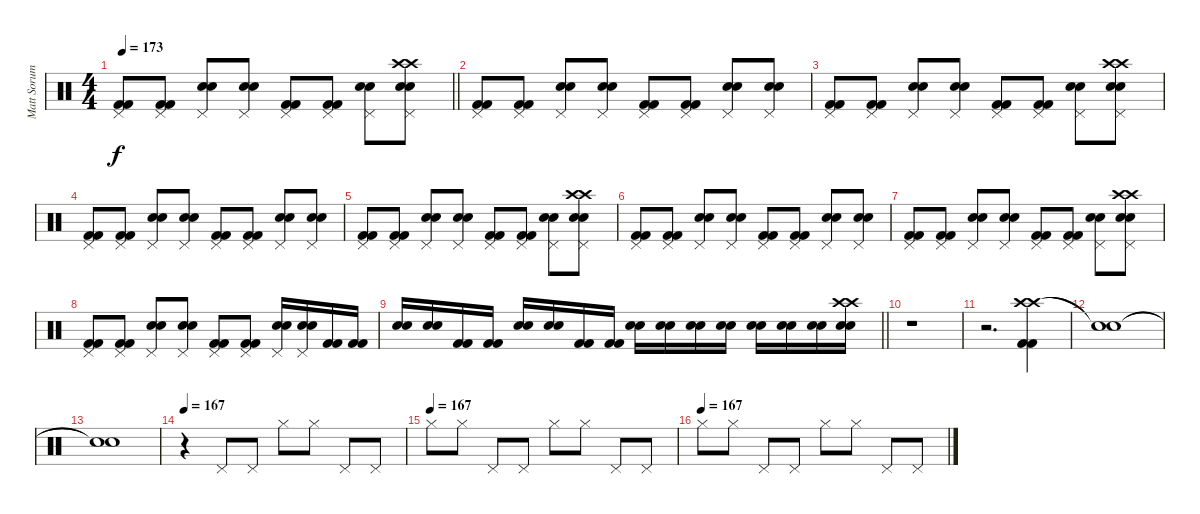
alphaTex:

\track ("Matt Sorum" "Matt Sorum") {instrument percussion}
\staff {score}
\articulation defaults
\ts (4 4)
\tempo 173
\clef neutral
\barLineRight lightlight
\ks c
("Pedal Hi-Hat (hit)" "Kick (hit) 2" "Kick (hit) 2").8{dy f} ("Pedal Hi-Hat (hit)" "Kick (hit) 2" "Kick (hit) 2").8 ("Pedal Hi-Hat (hit)" "Snare (hit) 2" "Snare (hit) 2").8 ("Pedal Hi-Hat (hit)" "Snare (hit) 2" "Snare (hit) 2").8 ("Pedal Hi-Hat (hit)" "Kick (hit) 2" "Kick (hit) 2").8 ("Pedal Hi-Hat (hit)" "Kick (hit) 2" "Kick (hit) 2").8 ("Pedal Hi-Hat (hit)" "Snare (hit) 2" "Snare (hit) 2").8 ("Crash high (hit)" "Crash high (hit)" "Pedal Hi-Hat (hit)" "Snare (hit) 2" "Snare (hit) 2").8 |
("Pedal Hi-Hat (hit)" "Kick (hit) 2" "Kick (hit) 2").8 ("Pedal Hi-Hat (hit)" "Kick (hit) 2" "Kick (hit) 2").8 ("Pedal Hi-Hat (hit)" "Snare (hit) 2" "Snare (hit) 2").8 ("Pedal Hi-Hat (hit)" "Snare (hit) 2" "Snare (hit) 2").8 ("Pedal Hi-Hat (hit)" "Kick (hit) 2" "Kick (hit) 2").8 ("Pedal Hi-Hat (hit)" "Kick (hit) 2" "Kick (hit) 2").8 ("Pedal Hi-Hat (hit)" "Snare (hit) 2" "Snare (hit) 2").8 ("Pedal Hi-Hat (hit)" "Snare (hit) 2" "Snare (hit) 2").8 |
("Pedal Hi-Hat (hit)" "Kick (hit) 2" "Kick (hit) 2").8 ("Pedal Hi-Hat (hit)" "Kick (hit) 2" "Kick (hit) 2").8 ("Pedal Hi-Hat (hit)" "Snare (hit) 2" "Snare (hit) 2").8 ("Pedal Hi-Hat (hit)" "Snare (hit) 2" "Snare (hit) 2").8 ("Pedal Hi-Hat (hit)" "Kick (hit) 2" "Kick (hit) 2").8 ("Pedal Hi-Hat (hit)" "Kick (hit) 2" "Kick (hit) 2").8 ("Pedal Hi-Hat (hit)" "Snare (hit) 2" "Snare (hit) 2").8 ("Crash high (hit)" "Crash high (hit)" "Pedal Hi-Hat (hit)" "Snare (hit) 2" "Snare (hit) 2").8 |
("Pedal Hi-Hat (hit)" "Kick (hit) 2" "Kick (hit) 2").8 ("Pedal Hi-Hat (hit)" "Kick (hit) 2" "Kick (hit) 2").8 ("Pedal Hi-Hat (hit)" "Snare (hit) 2" "Snare (hit) 2").8 ("Pedal Hi-Hat (hit)" "Snare (hit) 2" "Snare (hit) 2").8 ("Pedal Hi-Hat (hit)" "Kick (hit) 2" "Kick (hit) 2").8 ("Pedal Hi-Hat (hit)" "Kick (hit) 2" "Kick (hit) 2").8 ("Pedal Hi-Hat (hit)" "Snare (hit) 2" "Snare (hit) 2").8 ("Pedal Hi-Hat (hit)" "Snare (hit) 2" "Snare (hit) 2").8 |
("Pedal Hi-Hat (hit)" "Kick (hit) 2" "Kick (hit) 2").8 ("Pedal Hi-Hat (hit)" "Kick (hit) 2" "Kick (hit) 2").8 ("Pedal Hi-Hat (hit)" "Snare (hit) 2" "Snare (hit) 2").8 ("Pedal Hi-Hat (hit)" "Snare (hit) 2" "Snare (hit) 2").8 ("Pedal Hi-Hat (hit)" "Kick (hit) 2" "Kick (hit) 2").8 ("Pedal Hi-Hat (hit)" "Kick (hit) 2" "Kick (hit) 2").8 ("Pedal Hi-Hat (hit)" "Snare (hit) 2" "Snare (hit) 2").8 ("Crash high (hit)" "Crash high (hit)" "Pedal Hi-Hat (hit)" "Snare (hit) 2" "Snare (hit) 2").8 |
("Pedal Hi-Hat (hit)" "Kick (hit) 2" "Kick (hit) 2").8 ("Pedal Hi-Hat (hit)" "Kick (hit) 2" "Kick (hit) 2").8 ("Pedal Hi-Hat (hit)" "Snare (hit) 2" "Snare (hit) 2").8 ("Pedal Hi-Hat (hit)" "Snare (hit) 2" "Snare (hit) 2").8 ("Pedal Hi-Hat (hit)" "Kick (hit) 2" "Kick (hit) 2").8 ("Pedal Hi-Hat (hit)" "Kick (hit) 2" "Kick (hit) 2").8 ("Pedal Hi-Hat (hit)" "Snare (hit) 2" "Snare (hit) 2").8 ("Pedal Hi-Hat (hit)" "Snare (hit) 2" "Snare (hit) 2").8 |
("Pedal Hi-Hat (hit)" "Kick (hit) 2" "Kick (hit) 2").8 ("Pedal Hi-Hat (hit)" "Kick (hit) 2" "Kick (hit) 2").8 ("Pedal Hi-Hat (hit)" "Snare (hit) 2" "Snare (hit) 2").8 ("Pedal Hi-Hat (hit)" "Snare (hit) 2" "Snare (hit) 2").8 ("Pedal Hi-Hat (hit)" "Kick (hit) 2" "Kick (hit) 2").8 ("Pedal Hi-Hat (hit)" "Kick (hit) 2" "Kick (hit) 2").8 ("Pedal Hi-Hat (hit)" "Snare (hit) 2" "Snare (hit) 2").8 ("Crash high (hit)" "Crash high (hit)" "Pedal Hi-Hat (hit)" "Snare (hit) 2" "Snare (hit) 2").8 |
("Pedal Hi-Hat (hit)" "Kick (hit) 2" "Kick (hit) 2").8 ("Pedal Hi-Hat (hit)" "Kick (hit) 2" "Kick (hit) 2").8 ("Pedal Hi-Hat (hit)" "Snare (hit) 2" "Snare (hit) 2").8 ("Pedal Hi-Hat (hit)" "Snare (hit) 2" "Snare (hit) 2").8 ("Pedal Hi-Hat (hit)" "Kick (hit) 2" "Kick (hit) 2").8 ("Pedal Hi-Hat (hit)" "Kick (hit) 2" "Kick (hit) 2").8 ("Pedal Hi-Hat (hit)" "Snare (hit) 2" "Snare (hit) 2").16 ("Pedal Hi-Hat (hit)" "Snare (hit) 2" "Snare (hit) 2").16 ("Kick (hit) 2" "Kick (hit) 2").16 ("Kick (hit) 2" "Kick (hit) 2").16 |
\barLineRight lightlight
("Snare (hit) 2" "Snare (hit) 2").16 ("Snare (hit) 2" "Snare (hit) 2").16 ("Kick (hit) 2" "Kick (hit) 2").16 ("Kick (hit) 2" "Kick (hit) 2").16 ("Snare (hit) 2" "Snare (hit) 2").16 ("Snare (hit) 2" "Snare (hit) 2").16 ("Kick (hit) 2" "Kick (hit) 2").16 ("Kick (hit) 2" "Kick (hit) 2").16 ("Snare (hit) 2" "Snare (hit) 2").16 ("Snare (hit) 2" "Snare (hit) 2").16 ("Snare (hit) 2" "Snare (hit) 2").16 ("Snare (hit) 2" "Snare (hit) 2").16 ("Snare (hit) 2" "Snare (hit) 2").16 ("Snare (hit) 2" "Snare (hit) 2").16 ("Snare (hit) 2" "Snare (hit) 2").16 ("Crash high (hit)" "Crash high (hit)" "Snare (hit) 2" "Snare (hit) 2").16 |
r.1 |
r.2{d} ("Crash high (hit)" "Crash high (hit)" "Kick (hit) 2" "Kick (hit) 2").4 |
("Snare (hit)"{t} "Snare (hit)"{t}).1 |
("Snare (hit)"{t} "Snare (hit)"{t}).1 |
\tempo 167
r.4 "Pedal Hi-Hat (hit)".8 "Pedal Hi-Hat (hit)".8 "Hi-Hat (closed)".8 "Hi-Hat (closed)".8 "Pedal Hi-Hat (hit)".8 "Pedal Hi-Hat (hit)".8 |
\tempo (167)
"Hi-Hat (closed)".8 "Hi-Hat (closed)".8 "Pedal Hi-Hat (hit)".8 "Pedal Hi-Hat (hit)".8 "Hi-Hat (closed)".8 "Hi-Hat (closed)".8 "Pedal Hi-Hat (hit)".8 "Pedal Hi-Hat (hit)".8 |
\tempo (167)
"Hi-Hat (closed)".8 "Hi-Hat (closed)".8 "Pedal Hi-Hat (hit)".8 "Pedal Hi-Hat (hit)".8 "Hi-Hat (closed)".8 "Hi-Hat (closed)".8 "Pedal Hi-Hat (hit)".8 "Pedal Hi-Hat (hit)".8
